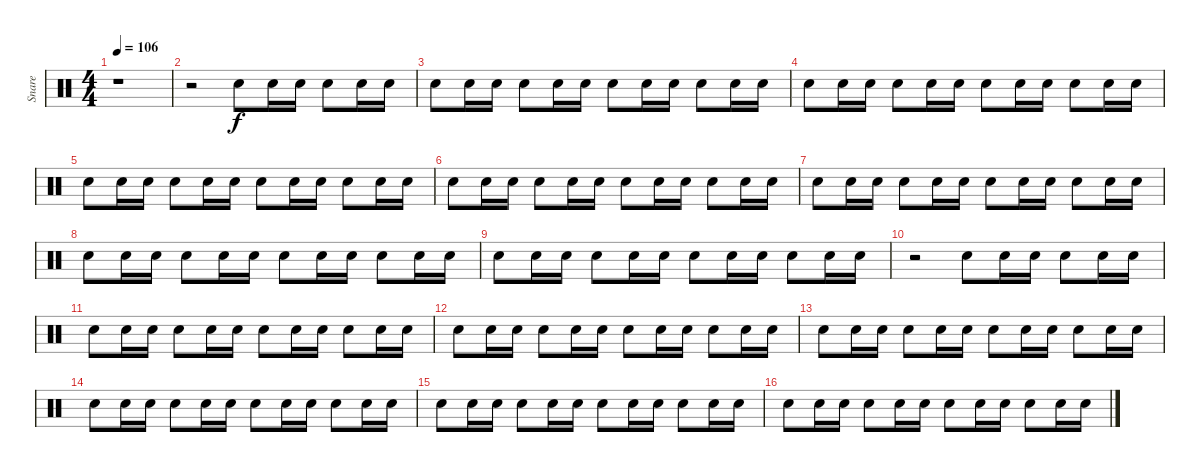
\track ("Snare" "Snare") {instrument percussion}
\staff {score}
\articulation defaults
\ts (4 4)
\tempo 106
\clef neutral
\ks c
r.1{dy f} |
r.2 "Electric Snare (hit)".8 "Electric Snare (hit)".16 "Electric Snare (hit)".16 "Electric Snare (hit)".8 "Electric Snare (hit)".16 "Electric Snare (hit)".16 |
"Electric Snare (hit)".8 "Electric Snare (hit)".16 "Electric Snare (hit)".16 "Electric Snare (hit)".8 "Electric Snare (hit)".16 "Electric Snare (hit)".16 "Electric Snare (hit)".8 "Electric Snare (hit)".16 "Electric Snare (hit)".16 "Electric Snare (hit)".8 "Electric Snare (hit)".16 "Electric Snare (hit)".16 |
"Electric Snare (hit)".8 "Electric Snare (hit)".16 "Electric Snare (hit)".16 "Electric Snare (hit)".8 "Electric Snare (hit)".16 "Electric Snare (hit)".16 "Electric Snare (hit)".8 "Electric Snare (hit)".16 "Electric Snare (hit)".16 "Electric Snare (hit)".8 "Electric Snare (hit)".16 "Electric Snare (hit)".16 |
"Electric Snare (hit)".8 "Electric Snare (hit)".16 "Electric Snare (hit)".16 "Electric Snare (hit)".8 "Electric Snare (hit)".16 "Electric Snare (hit)".16 "Electric Snare (hit)".8 "Electric Snare (hit)".16 "Electric Snare (hit)".16 "Electric Snare (hit)".8 "Electric Snare (hit)".16 "Electric Snare (hit)".16 |
"Electric Snare (hit)".8 "Electric Snare (hit)".16 "Electric Snare (hit)".16 "Electric Snare (hit)".8 "Electric Snare (hit)".16 "Electric Snare (hit)".16 "Electric Snare (hit)".8 "Electric Snare (hit)".16 "Electric Snare (hit)".16 "Electric Snare (hit)".8 "Electric Snare (hit)".16 "Electric Snare (hit)".16 |
"Electric Snare (hit)".8 "Electric Snare (hit)".16 "Electric Snare (hit)".16 "Electric Snare (hit)".8 "Electric Snare (hit)".16 "Electric Snare (hit)".16 "Electric Snare (hit)".8 "Electric Snare (hit)".16 "Electric Snare (hit)".16 "Electric Snare (hit)".8 "Electric Snare (hit)".16 "Electric Snare (hit)".16 |
"Electric Snare (hit)".8 "Electric Snare (hit)".16 "Electric Snare (hit)".16 "Electric Snare (hit)".8 "Electric Snare (hit)".16 "Electric Snare (hit)".16 "Electric Snare (hit)".8 "Electric Snare (hit)".16 "Electric Snare (hit)".16 "Electric Snare (hit)".8 "Electric Snare (hit)".16 "Electric Snare (hit)".16 |
"Electric Snare (hit)".8 "Electric Snare (hit)".16 "Electric Snare (hit)".16 "Electric Snare (hit)".8 "Electric Snare (hit)".16 "Electric Snare (hit)".16 "Electric Snare (hit)".8 "Electric Snare (hit)".16 "Electric Snare (hit)".16 "Electric Snare (hit)".8 "Electric Snare (hit)".16 "Electric Snare (hit)".16 |
r.2 "Electric Snare (hit)".8 "Electric Snare (hit)".16 "Electric Snare (hit)".16 "Electric Snare (hit)".8 "Electric Snare (hit)".16 "Electric Snare (hit)".16 |
"Electric Snare (hit)".8 "Electric Snare (hit)".16 "Electric Snare (hit)".16 "Electric Snare (hit)".8 "Electric Snare (hit)".16 "Electric Snare (hit)".16 "Electric Snare (hit)".8 "Electric Snare (hit)".16 "Electric Snare (hit)".16 "Electric Snare (hit)".8 "Electric Snare (hit)".16 "Electric Snare (hit)".16 |
"Electric Snare (hit)".8 "Electric Snare (hit)".16 "Electric Snare (hit)".16 "Electric Snare (hit)".8 "Electric Snare (hit)".16 "Electric Snare (hit)".16 "Electric Snare (hit)".8 "Electric Snare (hit)".16 "Electric Snare (hit)".16 "Electric Snare (hit)".8 "Electric Snare (hit)".16 "Electric Snare (hit)".16 |
"Electric Snare (hit)".8 "Electric Snare (hit)".16 "Electric Snare (hit)".16 "Electric Snare (hit)".8 "Electric Snare (hit)".16 "Electric Snare (hit)".16 "Electric Snare (hit)".8 "Electric Snare (hit)".16 "Electric Snare (hit)".16 "Electric Snare (hit)".8 "Electric Snare (hit)".16 "Electric Snare (hit)".16 |
"Electric Snare (hit)".8 "Electric Snare (hit)".16 "Electric Snare (hit)".16 "Electric Snare (hit)".8 "Electric Snare (hit)".16 "Electric Snare (hit)".16 "Electric Snare (hit)".8 "Electric Snare (hit)".16 "Electric Snare (hit)".16 "Electric Snare (hit)".8 "Electric Snare (hit)".16 "Electric Snare (hit)".16 |
"Electric Snare (hit)".8 "Electric Snare (hit)".16 "Electric Snare (hit)".16 "Electric Snare (hit)".8 "Electric Snare (hit)".16 "Electric Snare (hit)".16 "Electric Snare (hit)".8 "Electric Snare (hit)".16 "Electric Snare (hit)".16 "Electric Snare (hit)".8 "Electric Snare (hit)".16 "Electric Snare (hit)".16 |
"Electric Snare (hit)".8 "Electric Snare (hit)".16 "Electric Snare (hit)".16 "Electric Snare (hit)".8 "Electric Snare (hit)".16 "Electric Snare (hit)".16 "Electric Snare (hit)".8 "Electric Snare (hit)".16 "Electric Snare (hit)".16 "Electric Snare (hit)".8 "Electric Snare (hit)".16 "Electric Snare (hit)".16
